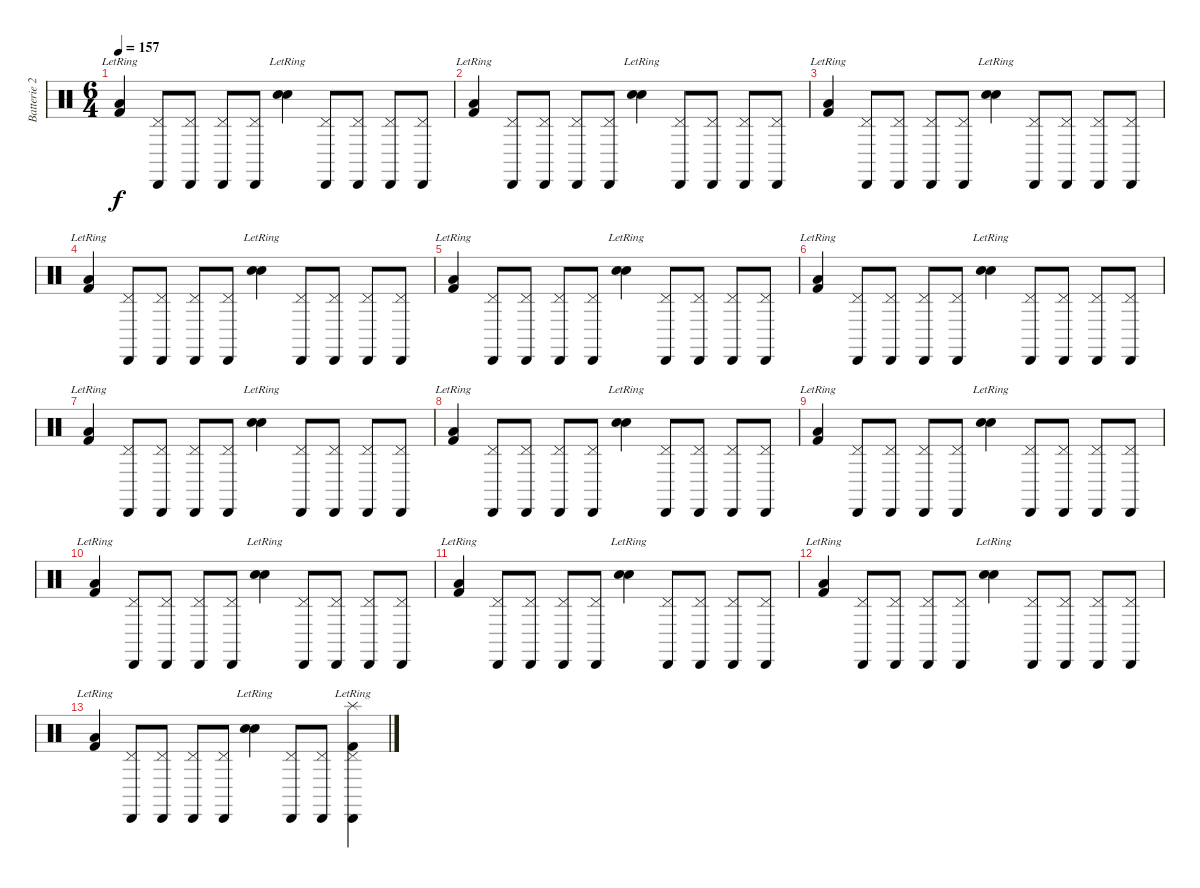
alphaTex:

\track ("Batterie 2" "Batterie 2") {instrument percussion}
\staff {score}
\articulation defaults
\ts (6 4)
\tempo 157
\clef neutral
\ks c
("Kick (hit) 2"{lr} "Low Floor Tom (hit)").4{dy f} ("Pedal Hi-Hat (hit)" "Cabasa (hit)").8 ("Pedal Hi-Hat (hit)" "Cabasa (hit)").8 ("Pedal Hi-Hat (hit)" "Cabasa (hit)").8 ("Pedal Hi-Hat (hit)" "Cabasa (hit)").8 ("Snare (hit) 2"{lr} "Electric Snare (hit)").4 ("Pedal Hi-Hat (hit)" "Cabasa (hit)").8 ("Pedal Hi-Hat (hit)" "Cabasa (hit)").8 ("Pedal Hi-Hat (hit)" "Cabasa (hit)").8 ("Pedal Hi-Hat (hit)" "Cabasa (hit)").8 |
("Kick (hit) 2"{lr} "Low Floor Tom (hit)").4 ("Pedal Hi-Hat (hit)" "Cabasa (hit)").8 ("Pedal Hi-Hat (hit)" "Cabasa (hit)").8 ("Pedal Hi-Hat (hit)" "Cabasa (hit)").8 ("Pedal Hi-Hat (hit)" "Cabasa (hit)").8 ("Snare (hit) 2"{lr} "Electric Snare (hit)").4 ("Pedal Hi-Hat (hit)" "Cabasa (hit)").8 ("Pedal Hi-Hat (hit)" "Cabasa (hit)").8 ("Pedal Hi-Hat (hit)" "Cabasa (hit)").8 ("Pedal Hi-Hat (hit)" "Cabasa (hit)").8 |
("Kick (hit) 2"{lr} "Low Floor Tom (hit)").4 ("Pedal Hi-Hat (hit)" "Cabasa (hit)").8 ("Pedal Hi-Hat (hit)" "Cabasa (hit)").8 ("Pedal Hi-Hat (hit)" "Cabasa (hit)").8 ("Pedal Hi-Hat (hit)" "Cabasa (hit)").8 ("Snare (hit) 2"{lr} "Electric Snare (hit)").4 ("Pedal Hi-Hat (hit)" "Cabasa (hit)").8 ("Pedal Hi-Hat (hit)" "Cabasa (hit)").8 ("Pedal Hi-Hat (hit)" "Cabasa (hit)").8 ("Pedal Hi-Hat (hit)" "Cabasa (hit)").8 |
("Kick (hit) 2"{lr} "Low Floor Tom (hit)").4 ("Pedal Hi-Hat (hit)" "Cabasa (hit)").8 ("Pedal Hi-Hat (hit)" "Cabasa (hit)").8 ("Pedal Hi-Hat (hit)" "Cabasa (hit)").8 ("Pedal Hi-Hat (hit)" "Cabasa (hit)").8 ("Snare (hit) 2"{lr} "Electric Snare (hit)").4 ("Pedal Hi-Hat (hit)" "Cabasa (hit)").8 ("Pedal Hi-Hat (hit)" "Cabasa (hit)").8 ("Pedal Hi-Hat (hit)" "Cabasa (hit)").8 ("Pedal Hi-Hat (hit)" "Cabasa (hit)").8 |
("Kick (hit) 2"{lr} "Low Floor Tom (hit)").4 ("Pedal Hi-Hat (hit)" "Cabasa (hit)").8 ("Pedal Hi-Hat (hit)" "Cabasa (hit)").8 ("Pedal Hi-Hat (hit)" "Cabasa (hit)").8 ("Pedal Hi-Hat (hit)" "Cabasa (hit)").8 ("Snare (hit) 2"{lr} "Electric Snare (hit)").4 ("Pedal Hi-Hat (hit)" "Cabasa (hit)").8 ("Pedal Hi-Hat (hit)" "Cabasa (hit)").8 ("Pedal Hi-Hat (hit)" "Cabasa (hit)").8 ("Pedal Hi-Hat (hit)" "Cabasa (hit)").8 |
("Kick (hit) 2"{lr} "Low Floor Tom (hit)").4 ("Pedal Hi-Hat (hit)" "Cabasa (hit)").8 ("Pedal Hi-Hat (hit)" "Cabasa (hit)").8 ("Pedal Hi-Hat (hit)" "Cabasa (hit)").8 ("Pedal Hi-Hat (hit)" "Cabasa (hit)").8 ("Snare (hit) 2"{lr} "Electric Snare (hit)").4 ("Pedal Hi-Hat (hit)" "Cabasa (hit)").8 ("Pedal Hi-Hat (hit)" "Cabasa (hit)").8 ("Pedal Hi-Hat (hit)" "Cabasa (hit)").8 ("Pedal Hi-Hat (hit)" "Cabasa (hit)").8 |
("Kick (hit) 2"{lr} "Low Floor Tom (hit)").4 ("Pedal Hi-Hat (hit)" "Cabasa (hit)").8 ("Pedal Hi-Hat (hit)" "Cabasa (hit)").8 ("Pedal Hi-Hat (hit)" "Cabasa (hit)").8 ("Pedal Hi-Hat (hit)" "Cabasa (hit)").8 ("Snare (hit) 2"{lr} "Electric Snare (hit)").4 ("Pedal Hi-Hat (hit)" "Cabasa (hit)").8 ("Pedal Hi-Hat (hit)" "Cabasa (hit)").8 ("Pedal Hi-Hat (hit)" "Cabasa (hit)").8 ("Pedal Hi-Hat (hit)" "Cabasa (hit)").8 |
("Kick (hit) 2"{lr} "Low Floor Tom (hit)").4 ("Pedal Hi-Hat (hit)" "Cabasa (hit)").8 ("Pedal Hi-Hat (hit)" "Cabasa (hit)").8 ("Pedal Hi-Hat (hit)" "Cabasa (hit)").8 ("Pedal Hi-Hat (hit)" "Cabasa (hit)").8 ("Snare (hit) 2"{lr} "Electric Snare (hit)").4 ("Pedal Hi-Hat (hit)" "Cabasa (hit)").8 ("Pedal Hi-Hat (hit)" "Cabasa (hit)").8 ("Pedal Hi-Hat (hit)" "Cabasa (hit)").8 ("Pedal Hi-Hat (hit)" "Cabasa (hit)").8 |
("Kick (hit) 2"{lr} "Low Floor Tom (hit)").4 ("Pedal Hi-Hat (hit)" "Cabasa (hit)").8 ("Pedal Hi-Hat (hit)" "Cabasa (hit)").8 ("Pedal Hi-Hat (hit)" "Cabasa (hit)").8 ("Pedal Hi-Hat (hit)" "Cabasa (hit)").8 ("Snare (hit) 2"{lr} "Electric Snare (hit)").4 ("Pedal Hi-Hat (hit)" "Cabasa (hit)").8 ("Pedal Hi-Hat (hit)" "Cabasa (hit)").8 ("Pedal Hi-Hat (hit)" "Cabasa (hit)").8 ("Pedal Hi-Hat (hit)" "Cabasa (hit)").8 |
("Kick (hit) 2"{lr} "Low Floor Tom (hit)").4 ("Pedal Hi-Hat (hit)" "Cabasa (hit)").8 ("Pedal Hi-Hat (hit)" "Cabasa (hit)").8 ("Pedal Hi-Hat (hit)" "Cabasa (hit)").8 ("Pedal Hi-Hat (hit)" "Cabasa (hit)").8 ("Snare (hit) 2"{lr} "Electric Snare (hit)").4 ("Pedal Hi-Hat (hit)" "Cabasa (hit)").8 ("Pedal Hi-Hat (hit)" "Cabasa (hit)").8 ("Pedal Hi-Hat (hit)" "Cabasa (hit)").8 ("Pedal Hi-Hat (hit)" "Cabasa (hit)").8 |
("Kick (hit) 2"{lr} "Low Floor Tom (hit)").4 ("Pedal Hi-Hat (hit)" "Cabasa (hit)").8 ("Pedal Hi-Hat (hit)" "Cabasa (hit)").8 ("Pedal Hi-Hat (hit)" "Cabasa (hit)").8 ("Pedal Hi-Hat (hit)" "Cabasa (hit)").8 ("Snare (hit) 2"{lr} "Electric Snare (hit)").4 ("Pedal Hi-Hat (hit)" "Cabasa (hit)").8 ("Pedal Hi-Hat (hit)" "Cabasa (hit)").8 ("Pedal Hi-Hat (hit)" "Cabasa (hit)").8 ("Pedal Hi-Hat (hit)" "Cabasa (hit)").8 |
("Kick (hit) 2"{lr} "Low Floor Tom (hit)").4 ("Pedal Hi-Hat (hit)" "Cabasa (hit)").8 ("Pedal Hi-Hat (hit)" "Cabasa (hit)").8 ("Pedal Hi-Hat (hit)" "Cabasa (hit)").8 ("Pedal Hi-Hat (hit)" "Cabasa (hit)").8 ("Snare (hit) 2"{lr} "Electric Snare (hit)").4 ("Pedal Hi-Hat (hit)" "Cabasa (hit)").8 ("Pedal Hi-Hat (hit)" "Cabasa (hit)").8 ("Pedal Hi-Hat (hit)" "Cabasa (hit)").8 ("Pedal Hi-Hat (hit)" "Cabasa (hit)").8 |
("Kick (hit) 2"{lr} "Low Floor Tom (hit)").4 ("Pedal Hi-Hat (hit)" "Cabasa (hit)").8 ("Pedal Hi-Hat (hit)" "Cabasa (hit)").8 ("Pedal Hi-Hat (hit)" "Cabasa (hit)").8 ("Pedal Hi-Hat (hit)" "Cabasa (hit)").8 ("Snare (hit) 2"{lr} "Electric Snare (hit)").4 ("Pedal Hi-Hat (hit)" "Cabasa (hit)").8 ("Pedal Hi-Hat (hit)" "Cabasa (hit)").8 ("Pedal Hi-Hat (hit)"{lr} "Cabasa (hit)"{lr} "Splash (hit)"{lr} "Kick (hit) 2"{lr}).4
